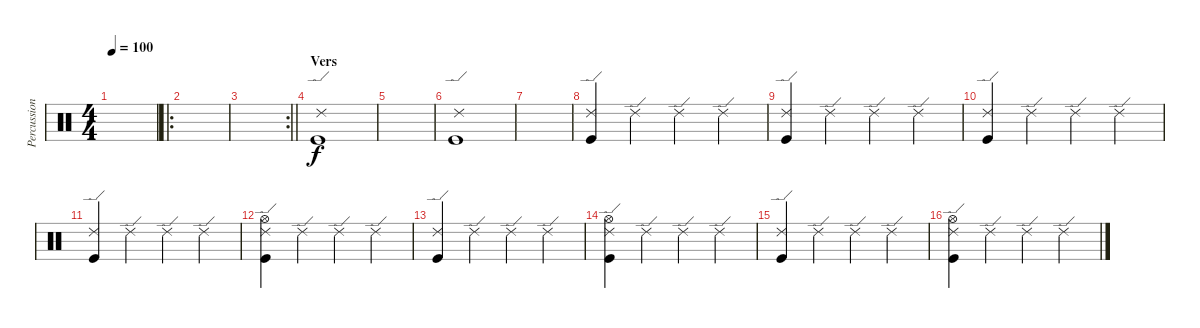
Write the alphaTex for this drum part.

\track ("Percussion" "Percussion") {instrument percussion}
\staff {score}
\articulation defaults
\ts (4 4)
\tempo 100
\clef neutral
\ks c
|
\ro
|
\rc 2
\barLineRight lightlight
|
\section ("" "Vers")
("Ride (edge) 2" "Kick (hit)").1 |
|
("Ride (edge) 2" "Kick (hit)").1 |
|
("Ride (edge) 2" "Kick (hit)").4 "Ride (edge) 2".4 "Ride (edge) 2".4 "Ride (edge) 2".4 |
("Ride (edge) 2" "Kick (hit)").4 "Ride (edge) 2".4 "Ride (edge) 2".4 "Ride (edge) 2".4 |
("Ride (edge) 2" "Kick (hit)").4 "Ride (edge) 2".4 "Ride (edge) 2".4 "Ride (edge) 2".4 |
("Ride (edge) 2" "Kick (hit)").4 "Ride (edge) 2".4 "Ride (edge) 2".4 "Ride (edge) 2".4 |
("Hi-Hat (open)" "Ride (edge) 2" "Kick (hit)").4 "Ride (edge) 2".4 "Ride (edge) 2".4 "Ride (edge) 2".4 |
("Ride (edge) 2" "Kick (hit)").4 "Ride (edge) 2".4 "Ride (edge) 2".4 "Ride (edge) 2".4 |
("Hi-Hat (open)" "Ride (edge) 2" "Kick (hit)").4 "Ride (edge) 2".4 "Ride (edge) 2".4 "Ride (edge) 2".4 |
("Ride (edge) 2" "Kick (hit)").4 "Ride (edge) 2".4 "Ride (edge) 2".4 "Ride (edge) 2".4 |
("Hi-Hat (open)" "Ride (edge) 2" "Kick (hit)").4 "Ride (edge) 2".4 "Ride (edge) 2".4 "Ride (edge) 2".4
